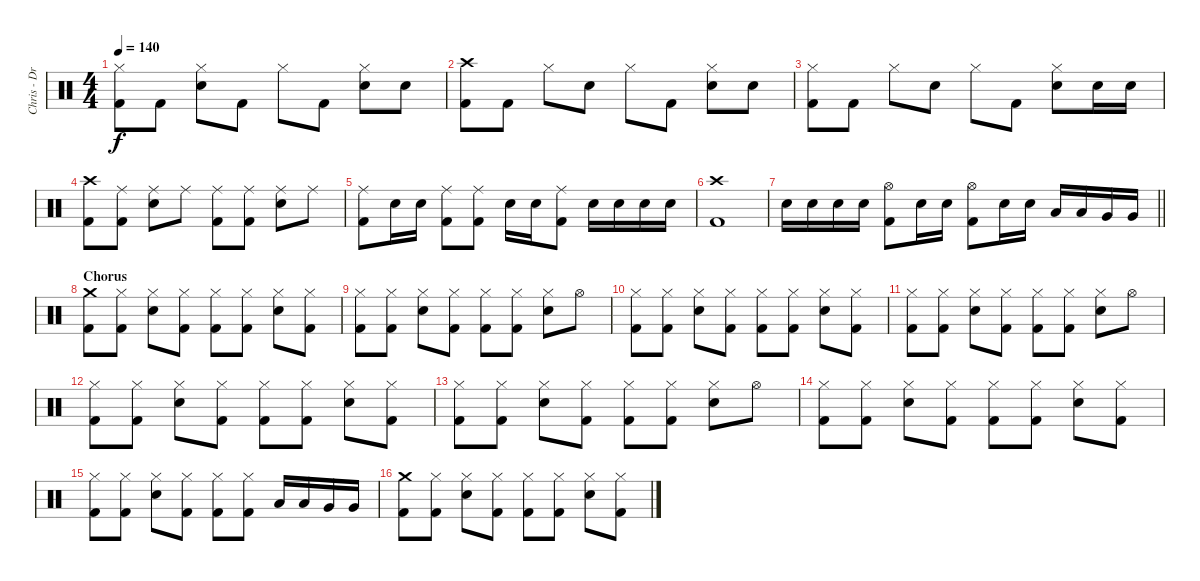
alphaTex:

\track ("Chris - Drums" "Chris - Dr") {instrument percussion}
\staff {score}
\articulation defaults
\ts (4 4)
\tempo 140
\clef neutral
\ks c
("Hi-Hat (closed)" "Kick (hit) 2").8{dy f} "Kick (hit) 2".8 ("Hi-Hat (closed)" "Electric Snare (hit)").8 "Kick (hit) 2".8 "Hi-Hat (closed)".8 "Kick (hit) 2".8 ("Hi-Hat (closed)" "Electric Snare (hit)").8 "Electric Snare (hit)".8 |
("Crash high (hit)" "Kick (hit) 2").8 "Kick (hit) 2".8 "Hi-Hat (closed)".8 "Electric Snare (hit)".8 "Hi-Hat (closed)".8 "Kick (hit) 2".8 ("Hi-Hat (closed)" "Electric Snare (hit)").8 "Electric Snare (hit)".8 |
("Hi-Hat (closed)" "Kick (hit) 2").8 "Kick (hit) 2".8 "Hi-Hat (closed)".8 "Electric Snare (hit)".8 "Hi-Hat (closed)".8 "Kick (hit) 2".8 ("Hi-Hat (closed)" "Electric Snare (hit)").8 "Electric Snare (hit)".16 "Electric Snare (hit)".16 |
("Crash high (hit)" "Kick (hit) 2").8 ("Ride (middle)" "Kick (hit) 2").8 ("Ride (middle)" "Electric Snare (hit)").8 "Ride (middle)".8 ("Ride (middle)" "Kick (hit) 2").8 ("Ride (middle)" "Kick (hit) 2").8 ("Ride (middle)" "Electric Snare (hit)").8 "Ride (middle)".8 |
("Ride (middle)" "Kick (hit) 2").8 "Electric Snare (hit)".16 "Electric Snare (hit)".16 ("Ride (middle)" "Kick (hit) 2").8 ("Ride (middle)" "Kick (hit) 2").8 "Electric Snare (hit)".16 "Electric Snare (hit)".16 ("Ride (middle)" "Kick (hit) 2").8 "Electric Snare (hit)".16 "Electric Snare (hit)".16 "Electric Snare (hit)".16 "Electric Snare (hit)".16 |
("Crash high (hit)" "Kick (hit) 2").1 |
\barLineRight lightlight "Electric Snare (hit)".16 "Electric Snare (hit)".16 "Electric Snare (hit)".16 "Electric Snare (hit)".16
("Hi-Hat (open)" "Kick (hit) 2").8 "Electric Snare (hit)".16 "Electric Snare (hit)".16 ("Hi-Hat (open)" "Kick (hit) 2").8 "Electric Snare (hit)".16 "Electric Snare (hit)".16 "Low Tom (hit)".16 "Low Tom (hit)".16 "Very Low Tom (hit)".16 "Very Low Tom (hit)".16 |
\section ("" "Chorus")
("Crash medium (hit)" "Kick (hit) 2").8 ("Hi-Hat (closed)" "Kick (hit) 2").8 ("Hi-Hat (closed)" "Electric Snare (hit)").8 ("Hi-Hat (closed)" "Kick (hit) 2").8 ("Hi-Hat (closed)" "Kick (hit) 2").8 ("Hi-Hat (closed)" "Kick (hit) 2").8 ("Hi-Hat (closed)" "Electric Snare (hit)").8 ("Hi-Hat (closed)" "Kick (hit) 2").8 |
("Hi-Hat (closed)" "Kick (hit) 2").8 ("Hi-Hat (closed)" "Kick (hit) 2").8 ("Hi-Hat (closed)" "Electric Snare (hit)").8 ("Hi-Hat (closed)" "Kick (hit) 2").8 ("Hi-Hat (closed)" "Kick (hit) 2").8 ("Hi-Hat (closed)" "Kick (hit) 2").8 ("Hi-Hat (closed)" "Electric Snare (hit)").8 "Hi-Hat (open)".8 |
("Hi-Hat (closed)" "Kick (hit) 2").8 ("Hi-Hat (closed)" "Kick (hit) 2").8 ("Hi-Hat (closed)" "Electric Snare (hit)").8 ("Hi-Hat (closed)" "Kick (hit) 2").8 ("Hi-Hat (closed)" "Kick (hit) 2").8 ("Hi-Hat (closed)" "Kick (hit) 2").8 ("Hi-Hat (closed)" "Electric Snare (hit)").8 ("Hi-Hat (closed)" "Kick (hit) 2").8 |
("Hi-Hat (closed)" "Kick (hit) 2").8 ("Hi-Hat (closed)" "Kick (hit) 2").8 ("Hi-Hat (closed)" "Electric Snare (hit)").8 ("Hi-Hat (closed)" "Kick (hit) 2").8 ("Hi-Hat (closed)" "Kick (hit) 2").8 ("Hi-Hat (closed)" "Kick (hit) 2").8 ("Hi-Hat (closed)" "Electric Snare (hit)").8 "Hi-Hat (open)".8 |
("Hi-Hat (closed)" "Kick (hit) 2").8 ("Hi-Hat (closed)" "Kick (hit) 2").8 ("Hi-Hat (closed)" "Electric Snare (hit)").8 ("Hi-Hat (closed)" "Kick (hit) 2").8 ("Hi-Hat (closed)" "Kick (hit) 2").8 ("Hi-Hat (closed)" "Kick (hit) 2").8 ("Hi-Hat (closed)" "Electric Snare (hit)").8 ("Hi-Hat (closed)" "Kick (hit) 2").8 |
("Hi-Hat (closed)" "Kick (hit) 2").8 ("Hi-Hat (closed)" "Kick (hit) 2").8 ("Hi-Hat (closed)" "Electric Snare (hit)").8 ("Hi-Hat (closed)" "Kick (hit) 2").8 ("Hi-Hat (closed)" "Kick (hit) 2").8 ("Hi-Hat (closed)" "Kick (hit) 2").8 ("Hi-Hat (closed)" "Electric Snare (hit)").8 "Hi-Hat (open)".8 |
("Hi-Hat (closed)" "Kick (hit) 2").8 ("Hi-Hat (closed)" "Kick (hit) 2").8 ("Hi-Hat (closed)" "Electric Snare (hit)").8 ("Hi-Hat (closed)" "Kick (hit) 2").8 ("Hi-Hat (closed)" "Kick (hit) 2").8 ("Hi-Hat (closed)" "Kick (hit) 2").8 ("Hi-Hat (closed)" "Electric Snare (hit)").8 ("Hi-Hat (closed)" "Kick (hit) 2").8 |
("Hi-Hat (closed)" "Kick (hit) 2").8 ("Hi-Hat (closed)" "Kick (hit) 2").8 ("Hi-Hat (closed)" "Electric Snare (hit)").8 ("Hi-Hat (closed)" "Kick (hit) 2").8 ("Hi-Hat (closed)" "Kick (hit) 2").8 ("Hi-Hat (closed)" "Kick (hit) 2").8 "Low Tom (hit)".16 "Low Tom (hit)".16 "Very Low Tom (hit)".16 "Very Low Tom (hit)".16 |
("Crash medium (hit)" "Kick (hit) 2").8 ("Hi-Hat (closed)" "Kick (hit) 2").8 ("Hi-Hat (closed)" "Electric Snare (hit)").8 ("Hi-Hat (closed)" "Kick (hit) 2").8 ("Hi-Hat (closed)" "Kick (hit) 2").8 ("Hi-Hat (closed)" "Kick (hit) 2").8 ("Hi-Hat (closed)" "Electric Snare (hit)").8 ("Hi-Hat (closed)" "Kick (hit) 2").8
